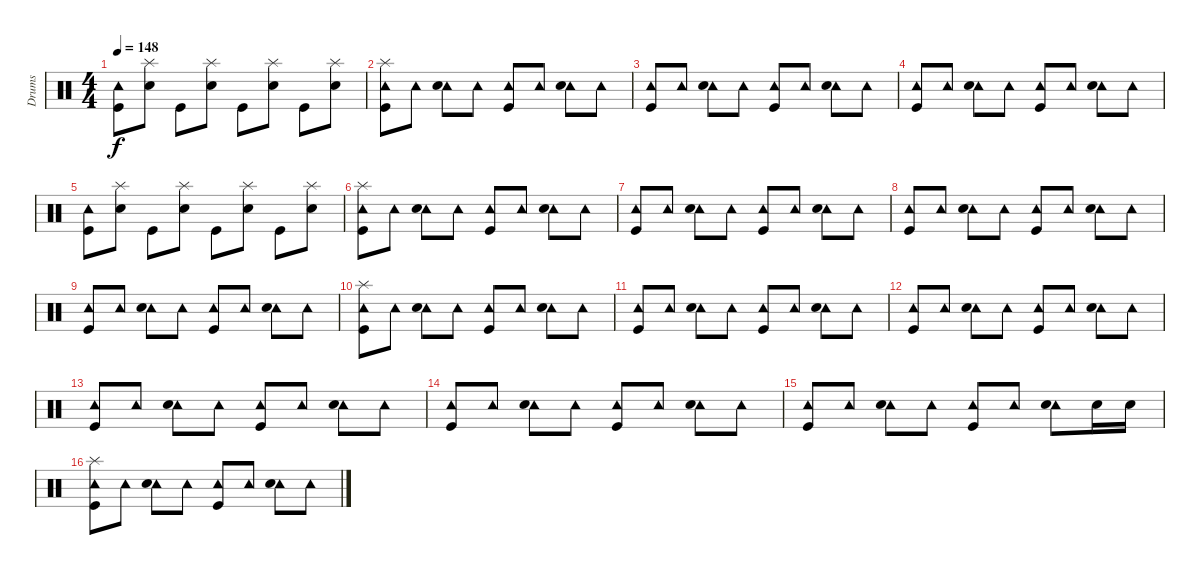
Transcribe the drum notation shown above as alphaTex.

\track ("Drums" "Drums") {instrument percussion}
\staff {score}
\articulation defaults
\ts (4 4)
\tempo 148
\clef neutral
\ks c
("Tambourine (hit)" "Kick (hit)").8{dy f} ("Snare (hit) 2" "Splash (hit)").8 "Kick (hit)".8 ("Snare (hit) 2" "Splash (hit)").8 "Kick (hit)".8 ("Snare (hit) 2" "Splash (hit)").8 "Kick (hit)".8 ("Snare (hit) 2" "Splash (hit)").8 |
("Tambourine (hit)" "Kick (hit)" "Splash (hit)").8 "Tambourine (hit)".8 ("Tambourine (hit)" "Snare (hit) 2").8 "Tambourine (hit)".8 ("Tambourine (hit)" "Kick (hit)").8 "Tambourine (hit)".8 ("Tambourine (hit)" "Snare (hit) 2").8 "Tambourine (hit)".8 |
("Tambourine (hit)" "Kick (hit)").8 "Tambourine (hit)".8 ("Tambourine (hit)" "Snare (hit) 2").8 "Tambourine (hit)".8 ("Tambourine (hit)" "Kick (hit)").8 "Tambourine (hit)".8 ("Tambourine (hit)" "Snare (hit) 2").8 "Tambourine (hit)".8 |
("Tambourine (hit)" "Kick (hit)").8 "Tambourine (hit)".8 ("Tambourine (hit)" "Snare (hit) 2").8 "Tambourine (hit)".8 ("Tambourine (hit)" "Kick (hit)").8 "Tambourine (hit)".8 ("Tambourine (hit)" "Snare (hit) 2").8 "Tambourine (hit)".8 |
("Tambourine (hit)" "Kick (hit)").8 ("Snare (hit) 2" "Splash (hit)").8 "Kick (hit)".8 ("Snare (hit) 2" "Splash (hit)").8 "Kick (hit)".8 ("Snare (hit) 2" "Splash (hit)").8 "Kick (hit)".8 ("Snare (hit) 2" "Splash (hit)").8 |
("Tambourine (hit)" "Kick (hit)" "Splash (hit)").8 "Tambourine (hit)".8 ("Tambourine (hit)" "Snare (hit) 2").8 "Tambourine (hit)".8 ("Tambourine (hit)" "Kick (hit)").8 "Tambourine (hit)".8 ("Tambourine (hit)" "Snare (hit) 2").8 "Tambourine (hit)".8 |
("Tambourine (hit)" "Kick (hit)").8 "Tambourine (hit)".8 ("Tambourine (hit)" "Snare (hit) 2").8 "Tambourine (hit)".8 ("Tambourine (hit)" "Kick (hit)").8 "Tambourine (hit)".8 ("Tambourine (hit)" "Snare (hit) 2").8 "Tambourine (hit)".8 |
("Tambourine (hit)" "Kick (hit)").8 "Tambourine (hit)".8 ("Tambourine (hit)" "Snare (hit) 2").8 "Tambourine (hit)".8 ("Tambourine (hit)" "Kick (hit)").8 "Tambourine (hit)".8 ("Tambourine (hit)" "Snare (hit) 2").8 "Tambourine (hit)".8 |
("Tambourine (hit)" "Kick (hit)").8 "Tambourine (hit)".8 ("Tambourine (hit)" "Snare (hit) 2").8 "Tambourine (hit)".8 ("Tambourine (hit)" "Kick (hit)").8 "Tambourine (hit)".8 ("Tambourine (hit)" "Snare (hit) 2").8 "Tambourine (hit)".8 |
("Tambourine (hit)" "Kick (hit)" "Splash (hit)").8 "Tambourine (hit)".8 ("Tambourine (hit)" "Snare (hit) 2").8 "Tambourine (hit)".8 ("Tambourine (hit)" "Kick (hit)").8 "Tambourine (hit)".8 ("Tambourine (hit)" "Snare (hit) 2").8 "Tambourine (hit)".8 |
("Tambourine (hit)" "Kick (hit)").8 "Tambourine (hit)".8 ("Tambourine (hit)" "Snare (hit) 2").8 "Tambourine (hit)".8 ("Tambourine (hit)" "Kick (hit)").8 "Tambourine (hit)".8 ("Tambourine (hit)" "Snare (hit) 2").8 "Tambourine (hit)".8 |
("Tambourine (hit)" "Kick (hit)").8 "Tambourine (hit)".8 ("Tambourine (hit)" "Snare (hit) 2").8 "Tambourine (hit)".8 ("Tambourine (hit)" "Kick (hit)").8 "Tambourine (hit)".8 ("Tambourine (hit)" "Snare (hit) 2").8 "Tambourine (hit)".8 |
("Tambourine (hit)" "Kick (hit)").8 "Tambourine (hit)".8 ("Tambourine (hit)" "Snare (hit) 2").8 "Tambourine (hit)".8 ("Tambourine (hit)" "Kick (hit)").8 "Tambourine (hit)".8 ("Tambourine (hit)" "Snare (hit) 2").8 "Tambourine (hit)".8 |
("Tambourine (hit)" "Kick (hit)").8 "Tambourine (hit)".8 ("Tambourine (hit)" "Snare (hit) 2").8 "Tambourine (hit)".8 ("Tambourine (hit)" "Kick (hit)").8 "Tambourine (hit)".8 ("Tambourine (hit)" "Snare (hit) 2").8 "Tambourine (hit)".8 |
("Tambourine (hit)" "Kick (hit)").8 "Tambourine (hit)".8 ("Tambourine (hit)" "Snare (hit) 2").8 "Tambourine (hit)".8 ("Tambourine (hit)" "Kick (hit)").8 "Tambourine (hit)".8 ("Tambourine (hit)" "Snare (hit) 2").8 "Snare (hit) 2".16 "Snare (hit) 2".16 |
("Tambourine (hit)" "Kick (hit)" "Splash (hit)").8 "Tambourine (hit)".8 ("Tambourine (hit)" "Snare (hit) 2").8 "Tambourine (hit)".8 ("Tambourine (hit)" "Kick (hit)").8 "Tambourine (hit)".8 ("Tambourine (hit)" "Snare (hit) 2").8 "Tambourine (hit)".8
